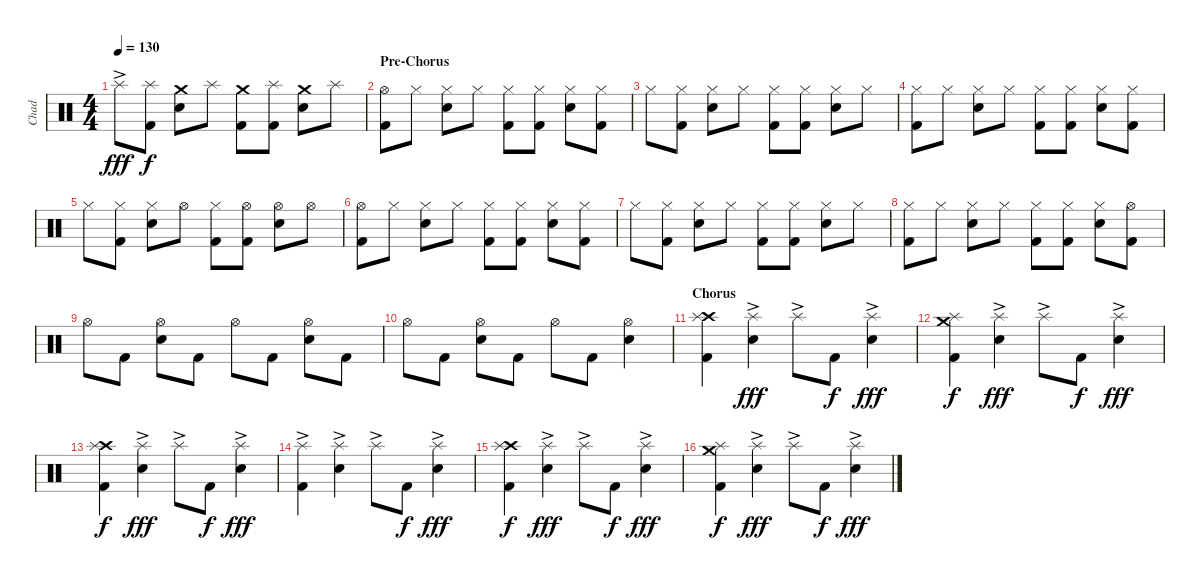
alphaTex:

\track ("Chad" "Chad") {instrument percussion}
\staff {score}
\articulation defaults
\ts (4 4)
\tempo 130
\clef neutral
\ks c "Splash (hit)"{ac}.8{dy fff}
("Splash (hit)" "Kick (hit) 2").8{dy f} ("Crash medium (hit)" "Snare (hit) 2").8 "Splash (hit)".8 ("Crash medium (hit)" "Kick (hit) 2").8 ("Splash (hit)" "Kick (hit) 2").8 ("Crash medium (hit)" "Snare (hit) 2").8 "Splash (hit)".8 |
\section ("" "Pre-Chorus")
("Hi-Hat (open)" "Kick (hit) 2").8 "Hi-Hat (closed)".8 ("Hi-Hat (closed)" "Snare (hit) 2").8 "Hi-Hat (closed)".8 ("Hi-Hat (closed)" "Kick (hit) 2").8 ("Hi-Hat (closed)" "Kick (hit) 2").8 ("Hi-Hat (closed)" "Snare (hit) 2").8 ("Hi-Hat (closed)" "Kick (hit) 2").8 |
"Hi-Hat (closed)".8 ("Hi-Hat (closed)" "Kick (hit) 2").8 ("Hi-Hat (closed)" "Snare (hit) 2").8 "Hi-Hat (closed)".8 ("Hi-Hat (closed)" "Kick (hit) 2").8 ("Hi-Hat (closed)" "Kick (hit) 2").8 ("Hi-Hat (closed)" "Snare (hit) 2").8 "Hi-Hat (closed)".8 |
("Hi-Hat (closed)" "Kick (hit) 2").8 "Hi-Hat (closed)".8 ("Hi-Hat (closed)" "Snare (hit) 2").8 "Hi-Hat (closed)".8 ("Hi-Hat (closed)" "Kick (hit) 2").8 ("Hi-Hat (closed)" "Kick (hit) 2").8 ("Hi-Hat (closed)" "Snare (hit) 2").8 ("Hi-Hat (closed)" "Kick (hit) 2").8 |
"Hi-Hat (closed)".8 ("Hi-Hat (closed)" "Kick (hit) 2").8 ("Hi-Hat (closed)" "Snare (hit) 2").8 "Hi-Hat (open)".8 ("Hi-Hat (closed)" "Kick (hit) 2").8 ("Hi-Hat (open)" "Kick (hit) 2").8 ("Hi-Hat (open)" "Snare (hit) 2").8 "Hi-Hat (open)".8 |
("Hi-Hat (open)" "Kick (hit) 2").8 "Hi-Hat (closed)".8 ("Hi-Hat (closed)" "Snare (hit) 2").8 "Hi-Hat (closed)".8 ("Hi-Hat (closed)" "Kick (hit) 2").8 ("Hi-Hat (closed)" "Kick (hit) 2").8 ("Hi-Hat (closed)" "Snare (hit) 2").8 ("Hi-Hat (closed)" "Kick (hit) 2").8 |
"Hi-Hat (closed)".8 ("Hi-Hat (closed)" "Kick (hit) 2").8 ("Hi-Hat (closed)" "Snare (hit) 2").8 "Hi-Hat (closed)".8 ("Hi-Hat (closed)" "Kick (hit) 2").8 ("Hi-Hat (closed)" "Kick (hit) 2").8 ("Hi-Hat (closed)" "Snare (hit) 2").8 "Hi-Hat (closed)".8 |
("Hi-Hat (closed)" "Kick (hit) 2").8 "Hi-Hat (closed)".8 ("Hi-Hat (closed)" "Snare (hit) 2").8 "Hi-Hat (closed)".8 ("Hi-Hat (closed)" "Kick (hit) 2").8 ("Hi-Hat (closed)" "Kick (hit) 2").8 ("Hi-Hat (closed)" "Snare (hit) 2").8 ("Hi-Hat (open)" "Kick (hit) 2").8 |
"Hi-Hat (open)".8 "Kick (hit) 2".8 ("Hi-Hat (open)" "Snare (hit) 2").8 "Kick (hit) 2".8 "Hi-Hat (open)".8 "Kick (hit) 2".8 ("Hi-Hat (open)" "Snare (hit) 2").8 "Kick (hit) 2".8 |
"Hi-Hat (open)".8 "Kick (hit) 2".8 ("Hi-Hat (open)" "Snare (hit) 2").8 "Kick (hit) 2".8 "Hi-Hat (open)".8 "Kick (hit) 2".8 ("Hi-Hat (open)" "Snare (hit) 2").4 |
\section ("" "Chorus")
("Crash high (hit)" "Splash (hit)" "Kick (hit) 2").4 ("Splash (hit)"{ac} "Snare (hit) 2").4{dy fff} "Splash (hit)"{ac}.8 "Kick (hit) 2".8{dy f} ("Splash (hit)"{ac} "Snare (hit) 2").4{dy fff} |
("Crash medium (hit)" "Splash (hit)" "Kick (hit) 2").4{dy f} ("Splash (hit)"{ac} "Snare (hit) 2").4{dy fff} "Splash (hit)"{ac}.8 "Kick (hit) 2".8{dy f} ("Splash (hit)"{ac} "Snare (hit) 2").4{dy fff} |
("Crash high (hit)" "Splash (hit)" "Kick (hit) 2").4{dy f} ("Splash (hit)"{ac} "Snare (hit) 2").4{dy fff} "Splash (hit)"{ac}.8 "Kick (hit) 2".8{dy f} ("Splash (hit)"{ac} "Snare (hit) 2").4{dy fff} |
("Splash (hit)"{ac} "Kick (hit) 2").4 ("Splash (hit)"{ac} "Snare (hit) 2").4 "Splash (hit)"{ac}.8 "Kick (hit) 2".8{dy f} ("Splash (hit)"{ac} "Snare (hit) 2").4{dy fff} |
("Crash high (hit)" "Splash (hit)" "Kick (hit) 2").4{dy f} ("Splash (hit)"{ac} "Snare (hit) 2").4{dy fff} "Splash (hit)"{ac}.8 "Kick (hit) 2".8{dy f} ("Splash (hit)"{ac} "Snare (hit) 2").4{dy fff} |
("Crash medium (hit)" "Splash (hit)" "Kick (hit) 2").4{dy f} ("Splash (hit)"{ac} "Snare (hit) 2").4{dy fff} "Splash (hit)"{ac}.8 "Kick (hit) 2".8{dy f} ("Splash (hit)"{ac} "Snare (hit) 2").4{dy fff}
